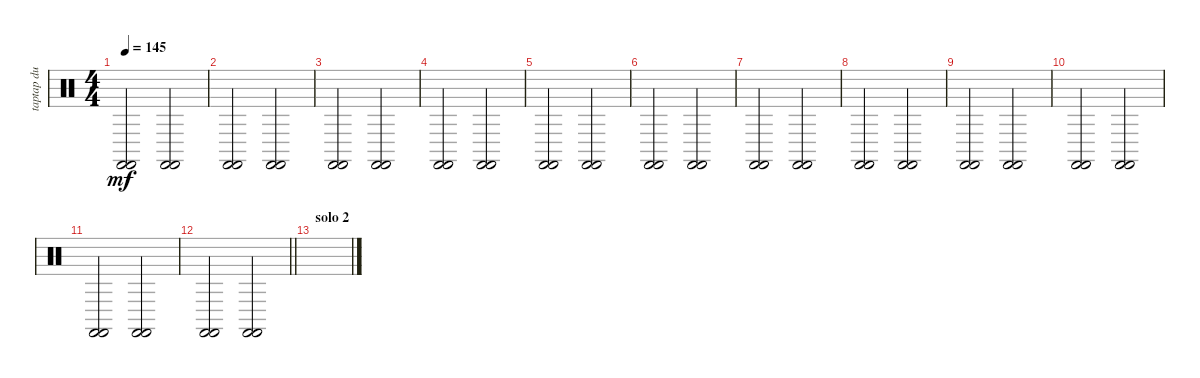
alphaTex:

\track ("taptap du pied" "taptap du ") {instrument percussion}
\staff {score}
\articulation defaults
\ts (4 4)
\tempo 145
\clef neutral
\ks c
("Castanets (hit)" "Castanets (hit)").2{dy mf} ("Castanets (hit)" "Castanets (hit)").2 |
("Castanets (hit)" "Castanets (hit)").2 ("Castanets (hit)" "Castanets (hit)").2 |
("Castanets (hit)" "Castanets (hit)").2 ("Castanets (hit)" "Castanets (hit)").2 |
("Castanets (hit)" "Castanets (hit)").2 ("Castanets (hit)" "Castanets (hit)").2 |
("Castanets (hit)" "Castanets (hit)").2 ("Castanets (hit)" "Castanets (hit)").2 |
("Castanets (hit)" "Castanets (hit)").2 ("Castanets (hit)" "Castanets (hit)").2 |
("Castanets (hit)" "Castanets (hit)").2 ("Castanets (hit)" "Castanets (hit)").2 |
("Castanets (hit)" "Castanets (hit)").2 ("Castanets (hit)" "Castanets (hit)").2 |
("Castanets (hit)" "Castanets (hit)").2 ("Castanets (hit)" "Castanets (hit)").2 |
("Castanets (hit)" "Castanets (hit)").2 ("Castanets (hit)" "Castanets (hit)").2 |
("Castanets (hit)" "Castanets (hit)").2 ("Castanets (hit)" "Castanets (hit)").2 |
\barLineRight lightlight
("Castanets (hit)" "Castanets (hit)").2 ("Castanets (hit)" "Castanets (hit)").2 |
\section ("" "solo 2")
